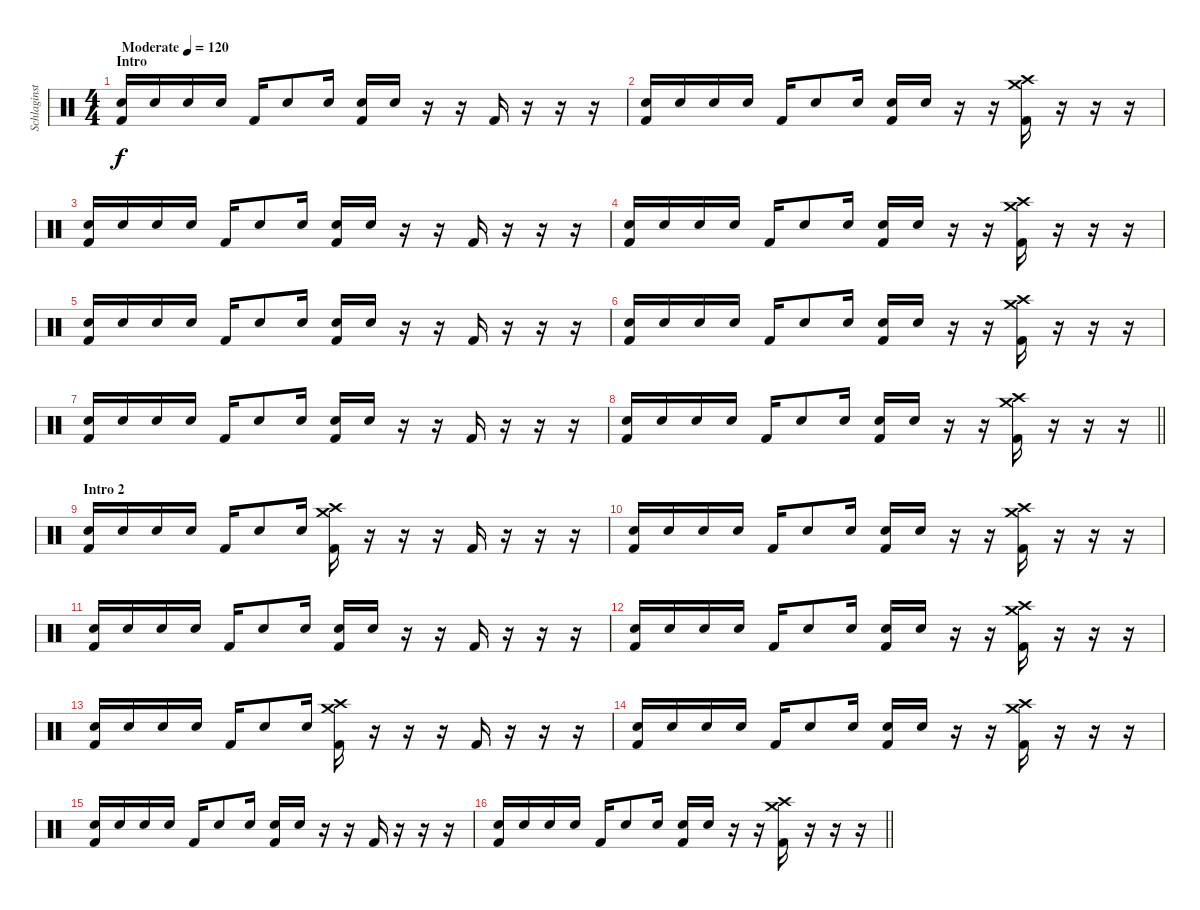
\track ("Schlaginstrumente - Auswahl" "Schlaginst") {instrument percussion}
\staff {score}
\articulation defaults
\ts (4 4)
\section ("" "Intro")
\tempo (120 "Moderate")
\clef neutral
\ks c
("Electric Snare (hit)" "Kick (hit) 2").16{dy f} "Electric Snare (hit)".16 "Electric Snare (hit)".16 "Electric Snare (hit)".16 "Kick (hit) 2".16 "Electric Snare (hit)".8 "Electric Snare (hit)".16 ("Electric Snare (hit)" "Kick (hit) 2").16 "Electric Snare (hit)".16 r.16 r.16 "Kick (hit) 2".16 r.16 r.16 r.16 |
("Electric Snare (hit)" "Kick (hit) 2").16 "Electric Snare (hit)".16 "Electric Snare (hit)".16 "Electric Snare (hit)".16 "Kick (hit) 2".16 "Electric Snare (hit)".8 "Electric Snare (hit)".16 ("Electric Snare (hit)" "Kick (hit) 2").16 "Electric Snare (hit)".16 r.16 r.16 ("Crash high (hit)" "Crash medium (hit)" "Kick (hit) 2").16 r.16 r.16 r.16 |
("Electric Snare (hit)" "Kick (hit) 2").16 "Electric Snare (hit)".16 "Electric Snare (hit)".16 "Electric Snare (hit)".16 "Kick (hit) 2".16 "Electric Snare (hit)".8 "Electric Snare (hit)".16 ("Electric Snare (hit)" "Kick (hit) 2").16 "Electric Snare (hit)".16 r.16 r.16 "Kick (hit) 2".16 r.16 r.16 r.16 |
("Electric Snare (hit)" "Kick (hit) 2").16 "Electric Snare (hit)".16 "Electric Snare (hit)".16 "Electric Snare (hit)".16 "Kick (hit) 2".16 "Electric Snare (hit)".8 "Electric Snare (hit)".16 ("Electric Snare (hit)" "Kick (hit) 2").16 "Electric Snare (hit)".16 r.16 r.16 ("Crash high (hit)" "Crash medium (hit)" "Kick (hit) 2").16 r.16 r.16 r.16 |
("Electric Snare (hit)" "Kick (hit) 2").16 "Electric Snare (hit)".16 "Electric Snare (hit)".16 "Electric Snare (hit)".16 "Kick (hit) 2".16 "Electric Snare (hit)".8 "Electric Snare (hit)".16 ("Electric Snare (hit)" "Kick (hit) 2").16 "Electric Snare (hit)".16 r.16 r.16 "Kick (hit) 2".16 r.16 r.16 r.16 |
("Electric Snare (hit)" "Kick (hit) 2").16 "Electric Snare (hit)".16 "Electric Snare (hit)".16 "Electric Snare (hit)".16 "Kick (hit) 2".16 "Electric Snare (hit)".8 "Electric Snare (hit)".16 ("Electric Snare (hit)" "Kick (hit) 2").16 "Electric Snare (hit)".16 r.16 r.16 ("Crash high (hit)" "Crash medium (hit)" "Kick (hit) 2").16 r.16 r.16 r.16 |
("Electric Snare (hit)" "Kick (hit) 2").16 "Electric Snare (hit)".16 "Electric Snare (hit)".16 "Electric Snare (hit)".16 "Kick (hit) 2".16 "Electric Snare (hit)".8 "Electric Snare (hit)".16 ("Electric Snare (hit)" "Kick (hit) 2").16 "Electric Snare (hit)".16 r.16 r.16 "Kick (hit) 2".16 r.16 r.16 r.16 |
\barLineRight lightlight
("Electric Snare (hit)" "Kick (hit) 2").16 "Electric Snare (hit)".16 "Electric Snare (hit)".16 "Electric Snare (hit)".16 "Kick (hit) 2".16 "Electric Snare (hit)".8 "Electric Snare (hit)".16 ("Electric Snare (hit)" "Kick (hit) 2").16 "Electric Snare (hit)".16 r.16 r.16 ("Crash high (hit)" "Crash medium (hit)" "Kick (hit) 2").16 r.16 r.16 r.16 |
\section ("" "Intro 2")
("Electric Snare (hit)" "Kick (hit) 2").16 "Electric Snare (hit)".16 "Electric Snare (hit)".16 "Electric Snare (hit)".16 "Kick (hit) 2".16 "Electric Snare (hit)".8 "Electric Snare (hit)".16 ("Crash high (hit)" "Crash medium (hit)" "Kick (hit) 2").16 r.16 r.16 r.16 "Kick (hit) 2".16 r.16 r.16 r.16 |
("Electric Snare (hit)" "Kick (hit) 2").16 "Electric Snare (hit)".16 "Electric Snare (hit)".16 "Electric Snare (hit)".16 "Kick (hit) 2".16 "Electric Snare (hit)".8 "Electric Snare (hit)".16 ("Electric Snare (hit)" "Kick (hit) 2").16 "Electric Snare (hit)".16 r.16 r.16 ("Crash high (hit)" "Crash medium (hit)" "Kick (hit) 2").16 r.16 r.16 r.16 |
("Electric Snare (hit)" "Kick (hit) 2").16 "Electric Snare (hit)".16 "Electric Snare (hit)".16 "Electric Snare (hit)".16 "Kick (hit) 2".16 "Electric Snare (hit)".8 "Electric Snare (hit)".16 ("Electric Snare (hit)" "Kick (hit) 2").16 "Electric Snare (hit)".16 r.16 r.16 "Kick (hit) 2".16 r.16 r.16 r.16 |
("Electric Snare (hit)" "Kick (hit) 2").16 "Electric Snare (hit)".16 "Electric Snare (hit)".16 "Electric Snare (hit)".16 "Kick (hit) 2".16 "Electric Snare (hit)".8 "Electric Snare (hit)".16 ("Electric Snare (hit)" "Kick (hit) 2").16 "Electric Snare (hit)".16 r.16 r.16 ("Crash high (hit)" "Crash medium (hit)" "Kick (hit) 2").16 r.16 r.16 r.16 |
("Electric Snare (hit)" "Kick (hit) 2").16 "Electric Snare (hit)".16 "Electric Snare (hit)".16 "Electric Snare (hit)".16 "Kick (hit) 2".16 "Electric Snare (hit)".8 "Electric Snare (hit)".16 ("Crash high (hit)" "Crash medium (hit)" "Kick (hit) 2").16 r.16 r.16 r.16 "Kick (hit) 2".16 r.16 r.16 r.16 |
("Electric Snare (hit)" "Kick (hit) 2").16 "Electric Snare (hit)".16 "Electric Snare (hit)".16 "Electric Snare (hit)".16 "Kick (hit) 2".16 "Electric Snare (hit)".8 "Electric Snare (hit)".16 ("Electric Snare (hit)" "Kick (hit) 2").16 "Electric Snare (hit)".16 r.16 r.16 ("Crash high (hit)" "Crash medium (hit)" "Kick (hit) 2").16 r.16 r.16 r.16 |
("Electric Snare (hit)" "Kick (hit) 2").16 "Electric Snare (hit)".16 "Electric Snare (hit)".16 "Electric Snare (hit)".16 "Kick (hit) 2".16 "Electric Snare (hit)".8 "Electric Snare (hit)".16 ("Electric Snare (hit)" "Kick (hit) 2").16 "Electric Snare (hit)".16 r.16 r.16 "Kick (hit) 2".16 r.16 r.16 r.16 |
\barLineRight lightlight
("Electric Snare (hit)" "Kick (hit) 2").16 "Electric Snare (hit)".16 "Electric Snare (hit)".16 "Electric Snare (hit)".16 "Kick (hit) 2".16 "Electric Snare (hit)".8 "Electric Snare (hit)".16 ("Electric Snare (hit)" "Kick (hit) 2").16 "Electric Snare (hit)".16 r.16 r.16 ("Crash high (hit)" "Crash medium (hit)" "Kick (hit) 2").16 r.16 r.16 r.16
